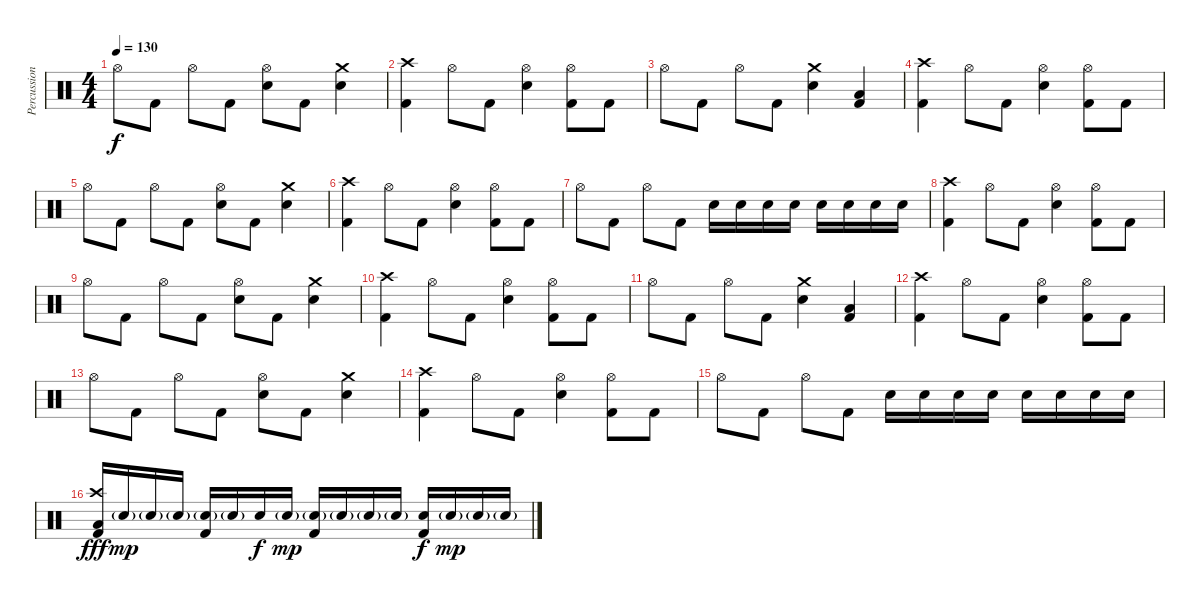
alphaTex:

\track ("Percussion" "Percussion") {instrument percussion}
\staff {score}
\articulation defaults
\ts (4 4)
\tempo 130
\clef neutral
\ks c "Hi-Hat (open)".8{dy f} "Kick (hit) 2".8 "Hi-Hat (open)".8 "Kick (hit) 2".8
("Hi-Hat (open)" "Electric Snare (hit)").8 "Kick (hit) 2".8 ("Crash medium (hit)" "Electric Snare (hit)").4 |
("Crash high (hit)" "Kick (hit) 2").4 "Hi-Hat (open)".8 "Kick (hit) 2".8 ("Hi-Hat (open)" "Electric Snare (hit)").4 ("Hi-Hat (open)" "Kick (hit) 2").8 "Kick (hit) 2".8 |
"Hi-Hat (open)".8 "Kick (hit) 2".8 "Hi-Hat (open)".8 "Kick (hit) 2".8 ("Crash medium (hit)" "Electric Snare (hit)").4 ("Low Tom (hit)" "Kick (hit) 2").4 |
("Crash high (hit)" "Kick (hit) 2").4 "Hi-Hat (open)".8 "Kick (hit) 2".8 ("Hi-Hat (open)" "Electric Snare (hit)").4 ("Hi-Hat (open)" "Kick (hit) 2").8 "Kick (hit) 2".8 |
"Hi-Hat (open)".8 "Kick (hit) 2".8 "Hi-Hat (open)".8 "Kick (hit) 2".8 ("Hi-Hat (open)" "Electric Snare (hit)").8 "Kick (hit) 2".8 ("Crash medium (hit)" "Electric Snare (hit)").4 |
("Crash high (hit)" "Kick (hit) 2").4 "Hi-Hat (open)".8 "Kick (hit) 2".8 ("Hi-Hat (open)" "Electric Snare (hit)").4 ("Hi-Hat (open)" "Kick (hit) 2").8 "Kick (hit) 2".8 |
"Hi-Hat (open)".8 "Kick (hit) 2".8 "Hi-Hat (open)".8 "Kick (hit) 2".8 "Electric Snare (hit)".16 "Electric Snare (hit)".16 "Electric Snare (hit)".16 "Electric Snare (hit)".16 "Electric Snare (hit)".16 "Electric Snare (hit)".16 "Electric Snare (hit)".16 "Electric Snare (hit)".16 |
("Crash high (hit)" "Kick (hit) 2").4 "Hi-Hat (open)".8 "Kick (hit) 2".8 ("Hi-Hat (open)" "Electric Snare (hit)").4 ("Hi-Hat (open)" "Kick (hit) 2").8 "Kick (hit) 2".8 |
"Hi-Hat (open)".8 "Kick (hit) 2".8 "Hi-Hat (open)".8 "Kick (hit) 2".8 ("Hi-Hat (open)" "Electric Snare (hit)").8 "Kick (hit) 2".8 ("Crash medium (hit)" "Electric Snare (hit)").4 |
("Crash high (hit)" "Kick (hit) 2").4 "Hi-Hat (open)".8 "Kick (hit) 2".8 ("Hi-Hat (open)" "Electric Snare (hit)").4 ("Hi-Hat (open)" "Kick (hit) 2").8 "Kick (hit) 2".8 |
"Hi-Hat (open)".8 "Kick (hit) 2".8 "Hi-Hat (open)".8 "Kick (hit) 2".8 ("Crash medium (hit)" "Electric Snare (hit)").4 ("Low Tom (hit)" "Kick (hit) 2").4 |
("Crash high (hit)" "Kick (hit) 2").4 "Hi-Hat (open)".8 "Kick (hit) 2".8 ("Hi-Hat (open)" "Electric Snare (hit)").4 ("Hi-Hat (open)" "Kick (hit) 2").8 "Kick (hit) 2".8 |
"Hi-Hat (open)".8 "Kick (hit) 2".8 "Hi-Hat (open)".8 "Kick (hit) 2".8 ("Hi-Hat (open)" "Electric Snare (hit)").8 "Kick (hit) 2".8 ("Crash medium (hit)" "Electric Snare (hit)").4 |
("Crash high (hit)" "Kick (hit) 2").4 "Hi-Hat (open)".8 "Kick (hit) 2".8 ("Hi-Hat (open)" "Electric Snare (hit)").4 ("Hi-Hat (open)" "Kick (hit) 2").8 "Kick (hit) 2".8 |
"Hi-Hat (open)".8 "Kick (hit) 2".8 "Hi-Hat (open)".8 "Kick (hit) 2".8 "Electric Snare (hit)".16 "Electric Snare (hit)".16 "Electric Snare (hit)".16 "Electric Snare (hit)".16 "Electric Snare (hit)".16 "Electric Snare (hit)".16 "Electric Snare (hit)".16 "Electric Snare (hit)".16 |
("Crash high (hit)" "Low Floor Tom (hit)" "Kick (hit) 2").16{dy fff} "Electric Snare (hit)"{g}.16{dy mp} "Electric Snare (hit)"{g}.16 "Electric Snare (hit)"{g}.16 ("Electric Snare (hit)"{g} "Kick (hit) 2").16 "Electric Snare (hit)"{g}.16 "Electric Snare (hit)".16{dy f} "Electric Snare (hit)"{g}.16{dy mp} ("Electric Snare (hit)"{g} "Kick (hit) 2").16 "Electric Snare (hit)"{g}.16 "Electric Snare (hit)"{g}.16 "Electric Snare (hit)"{g}.16 ("Electric Snare (hit)" "Kick (hit) 2").16{dy f} "Electric Snare (hit)"{g}.16{dy mp} "Electric Snare (hit)"{g}.16 "Electric Snare (hit)"{g}.16
